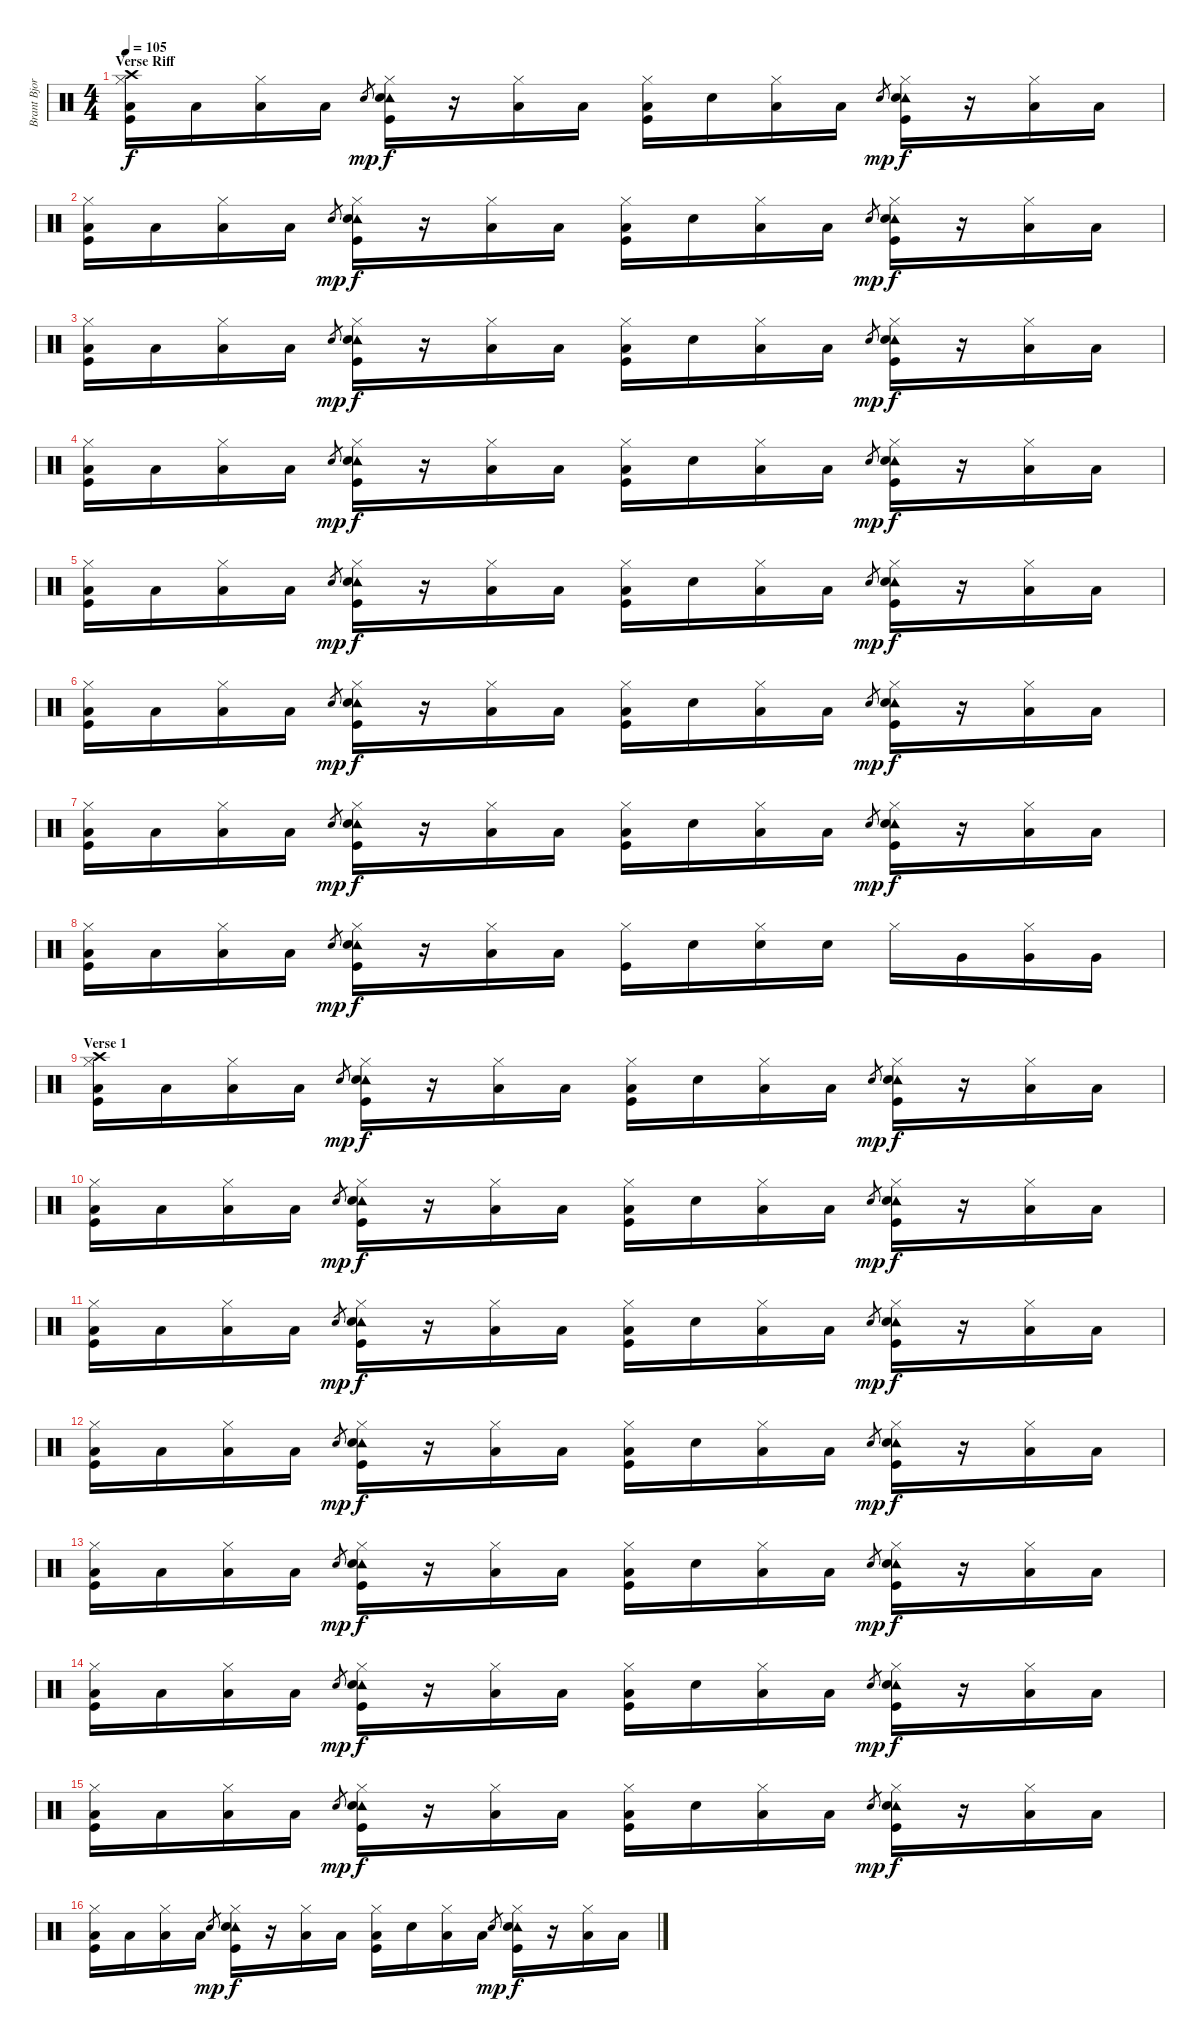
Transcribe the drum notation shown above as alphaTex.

\track ("Brant Bjork - Drums" "Brant Bjor") {instrument percussion}
\staff {score}
\articulation defaults
\ts (4 4)
\section ("" "Verse Riff")
\tempo 105
\clef neutral
\ks c
("Crash high (hit)" "Hi-Hat (closed)" "Low Floor Tom (hit)" "Kick (hit)").16{dy f} "Low Floor Tom (hit)".16 ("Hi-Hat (closed)" "Low Floor Tom (hit)").16 "Low Floor Tom (hit)".16 "Snare (hit) 2".8{gr dy mp} ("Tambourine (hit)" "Hi-Hat (closed)" "Snare (hit) 2" "Kick (hit)").16{dy f} r.16 ("Hi-Hat (closed)" "Low Floor Tom (hit)").16 "Low Floor Tom (hit)".16 ("Hi-Hat (closed)" "Low Floor Tom (hit)" "Kick (hit)").16 "Snare (hit) 2".16 ("Hi-Hat (closed)" "Low Floor Tom (hit)").16 "Low Floor Tom (hit)".16 "Snare (hit) 2".8{gr dy mp} ("Tambourine (hit)" "Hi-Hat (closed)" "Snare (hit) 2" "Kick (hit)").16{dy f} r.16 ("Hi-Hat (closed)" "Low Floor Tom (hit)").16 "Low Floor Tom (hit)".16 |
("Hi-Hat (closed)" "Low Floor Tom (hit)" "Kick (hit)").16 "Low Floor Tom (hit)".16 ("Hi-Hat (closed)" "Low Floor Tom (hit)").16 "Low Floor Tom (hit)".16 "Snare (hit) 2".8{gr dy mp} ("Tambourine (hit)" "Hi-Hat (closed)" "Snare (hit) 2" "Kick (hit)").16{dy f} r.16 ("Hi-Hat (closed)" "Low Floor Tom (hit)").16 "Low Floor Tom (hit)".16 ("Hi-Hat (closed)" "Low Floor Tom (hit)" "Kick (hit)").16 "Snare (hit) 2".16 ("Hi-Hat (closed)" "Low Floor Tom (hit)").16 "Low Floor Tom (hit)".16 "Snare (hit) 2".8{gr dy mp} ("Tambourine (hit)" "Hi-Hat (closed)" "Snare (hit) 2" "Kick (hit)").16{dy f} r.16 ("Hi-Hat (closed)" "Low Floor Tom (hit)").16 "Low Floor Tom (hit)".16 |
("Hi-Hat (closed)" "Low Floor Tom (hit)" "Kick (hit)").16 "Low Floor Tom (hit)".16 ("Hi-Hat (closed)" "Low Floor Tom (hit)").16 "Low Floor Tom (hit)".16 "Snare (hit) 2".8{gr dy mp} ("Tambourine (hit)" "Hi-Hat (closed)" "Snare (hit) 2" "Kick (hit)").16{dy f} r.16 ("Hi-Hat (closed)" "Low Floor Tom (hit)").16 "Low Floor Tom (hit)".16 ("Hi-Hat (closed)" "Low Floor Tom (hit)" "Kick (hit)").16 "Snare (hit) 2".16 ("Hi-Hat (closed)" "Low Floor Tom (hit)").16 "Low Floor Tom (hit)".16 "Snare (hit) 2".8{gr dy mp} ("Tambourine (hit)" "Hi-Hat (closed)" "Snare (hit) 2" "Kick (hit)").16{dy f} r.16 ("Hi-Hat (closed)" "Low Floor Tom (hit)").16 "Low Floor Tom (hit)".16 |
("Hi-Hat (closed)" "Low Floor Tom (hit)" "Kick (hit)").16 "Low Floor Tom (hit)".16 ("Hi-Hat (closed)" "Low Floor Tom (hit)").16 "Low Floor Tom (hit)".16 "Snare (hit) 2".8{gr dy mp} ("Tambourine (hit)" "Hi-Hat (closed)" "Snare (hit) 2" "Kick (hit)").16{dy f} r.16 ("Hi-Hat (closed)" "Low Floor Tom (hit)").16 "Low Floor Tom (hit)".16 ("Hi-Hat (closed)" "Low Floor Tom (hit)" "Kick (hit)").16 "Snare (hit) 2".16 ("Hi-Hat (closed)" "Low Floor Tom (hit)").16 "Low Floor Tom (hit)".16 "Snare (hit) 2".8{gr dy mp} ("Tambourine (hit)" "Hi-Hat (closed)" "Snare (hit) 2" "Kick (hit)").16{dy f} r.16 ("Hi-Hat (closed)" "Low Floor Tom (hit)").16 "Low Floor Tom (hit)".16 |
("Hi-Hat (closed)" "Low Floor Tom (hit)" "Kick (hit)").16 "Low Floor Tom (hit)".16 ("Hi-Hat (closed)" "Low Floor Tom (hit)").16 "Low Floor Tom (hit)".16 "Snare (hit) 2".8{gr dy mp} ("Tambourine (hit)" "Hi-Hat (closed)" "Snare (hit) 2" "Kick (hit)").16{dy f} r.16 ("Hi-Hat (closed)" "Low Floor Tom (hit)").16 "Low Floor Tom (hit)".16 ("Hi-Hat (closed)" "Low Floor Tom (hit)" "Kick (hit)").16 "Snare (hit) 2".16 ("Hi-Hat (closed)" "Low Floor Tom (hit)").16 "Low Floor Tom (hit)".16 "Snare (hit) 2".8{gr dy mp} ("Tambourine (hit)" "Hi-Hat (closed)" "Snare (hit) 2" "Kick (hit)").16{dy f} r.16 ("Hi-Hat (closed)" "Low Floor Tom (hit)").16 "Low Floor Tom (hit)".16 |
("Hi-Hat (closed)" "Low Floor Tom (hit)" "Kick (hit)").16 "Low Floor Tom (hit)".16 ("Hi-Hat (closed)" "Low Floor Tom (hit)").16 "Low Floor Tom (hit)".16 "Snare (hit) 2".8{gr dy mp} ("Tambourine (hit)" "Hi-Hat (closed)" "Snare (hit) 2" "Kick (hit)").16{dy f} r.16 ("Hi-Hat (closed)" "Low Floor Tom (hit)").16 "Low Floor Tom (hit)".16 ("Hi-Hat (closed)" "Low Floor Tom (hit)" "Kick (hit)").16 "Snare (hit) 2".16 ("Hi-Hat (closed)" "Low Floor Tom (hit)").16 "Low Floor Tom (hit)".16 "Snare (hit) 2".8{gr dy mp} ("Tambourine (hit)" "Hi-Hat (closed)" "Snare (hit) 2" "Kick (hit)").16{dy f} r.16 ("Hi-Hat (closed)" "Low Floor Tom (hit)").16 "Low Floor Tom (hit)".16 |
("Hi-Hat (closed)" "Low Floor Tom (hit)" "Kick (hit)").16 "Low Floor Tom (hit)".16 ("Hi-Hat (closed)" "Low Floor Tom (hit)").16 "Low Floor Tom (hit)".16 "Snare (hit) 2".8{gr dy mp} ("Tambourine (hit)" "Hi-Hat (closed)" "Snare (hit) 2" "Kick (hit)").16{dy f} r.16 ("Hi-Hat (closed)" "Low Floor Tom (hit)").16 "Low Floor Tom (hit)".16 ("Hi-Hat (closed)" "Low Floor Tom (hit)" "Kick (hit)").16 "Snare (hit) 2".16 ("Hi-Hat (closed)" "Low Floor Tom (hit)").16 "Low Floor Tom (hit)".16 "Snare (hit) 2".8{gr dy mp} ("Tambourine (hit)" "Hi-Hat (closed)" "Snare (hit) 2" "Kick (hit)").16{dy f} r.16 ("Hi-Hat (closed)" "Low Floor Tom (hit)").16 "Low Floor Tom (hit)".16 |
("Hi-Hat (closed)" "Low Floor Tom (hit)" "Kick (hit)").16 "Low Floor Tom (hit)".16 ("Hi-Hat (closed)" "Low Floor Tom (hit)").16 "Low Floor Tom (hit)".16 "Snare (hit) 2".8{gr dy mp} ("Tambourine (hit)" "Hi-Hat (closed)" "Snare (hit) 2" "Kick (hit)").16{dy f} r.16 ("Hi-Hat (closed)" "Low Floor Tom (hit)").16 "Low Floor Tom (hit)".16 ("Hi-Hat (closed)" "Kick (hit)").16 "Snare (hit) 2".16 ("Hi-Hat (closed)" "Snare (hit) 2").16 "Snare (hit) 2".16 "Hi-Hat (closed)".16 "Very Low Tom (hit)".16 ("Hi-Hat (closed)" "Very Low Tom (hit)").16 "Very Low Tom (hit)".16 |
\section ("" "Verse 1")
("Crash high (hit)" "Hi-Hat (closed)" "Low Floor Tom (hit)" "Kick (hit)").16 "Low Floor Tom (hit)".16 ("Hi-Hat (closed)" "Low Floor Tom (hit)").16 "Low Floor Tom (hit)".16 "Snare (hit) 2".8{gr dy mp} ("Tambourine (hit)" "Hi-Hat (closed)" "Snare (hit) 2" "Kick (hit)").16{dy f} r.16 ("Hi-Hat (closed)" "Low Floor Tom (hit)").16 "Low Floor Tom (hit)".16 ("Hi-Hat (closed)" "Low Floor Tom (hit)" "Kick (hit)").16 "Snare (hit) 2".16 ("Hi-Hat (closed)" "Low Floor Tom (hit)").16 "Low Floor Tom (hit)".16 "Snare (hit) 2".8{gr dy mp} ("Tambourine (hit)" "Hi-Hat (closed)" "Snare (hit) 2" "Kick (hit)").16{dy f} r.16 ("Hi-Hat (closed)" "Low Floor Tom (hit)").16 "Low Floor Tom (hit)".16 |
("Hi-Hat (closed)" "Low Floor Tom (hit)" "Kick (hit)").16 "Low Floor Tom (hit)".16 ("Hi-Hat (closed)" "Low Floor Tom (hit)").16 "Low Floor Tom (hit)".16 "Snare (hit) 2".8{gr dy mp} ("Tambourine (hit)" "Hi-Hat (closed)" "Snare (hit) 2" "Kick (hit)").16{dy f} r.16 ("Hi-Hat (closed)" "Low Floor Tom (hit)").16 "Low Floor Tom (hit)".16 ("Hi-Hat (closed)" "Low Floor Tom (hit)" "Kick (hit)").16 "Snare (hit) 2".16 ("Hi-Hat (closed)" "Low Floor Tom (hit)").16 "Low Floor Tom (hit)".16 "Snare (hit) 2".8{gr dy mp} ("Tambourine (hit)" "Hi-Hat (closed)" "Snare (hit) 2" "Kick (hit)").16{dy f} r.16 ("Hi-Hat (closed)" "Low Floor Tom (hit)").16 "Low Floor Tom (hit)".16 |
("Hi-Hat (closed)" "Low Floor Tom (hit)" "Kick (hit)").16 "Low Floor Tom (hit)".16 ("Hi-Hat (closed)" "Low Floor Tom (hit)").16 "Low Floor Tom (hit)".16 "Snare (hit) 2".8{gr dy mp} ("Tambourine (hit)" "Hi-Hat (closed)" "Snare (hit) 2" "Kick (hit)").16{dy f} r.16 ("Hi-Hat (closed)" "Low Floor Tom (hit)").16 "Low Floor Tom (hit)".16 ("Hi-Hat (closed)" "Low Floor Tom (hit)" "Kick (hit)").16 "Snare (hit) 2".16 ("Hi-Hat (closed)" "Low Floor Tom (hit)").16 "Low Floor Tom (hit)".16 "Snare (hit) 2".8{gr dy mp} ("Tambourine (hit)" "Hi-Hat (closed)" "Snare (hit) 2" "Kick (hit)").16{dy f} r.16 ("Hi-Hat (closed)" "Low Floor Tom (hit)").16 "Low Floor Tom (hit)".16 |
("Hi-Hat (closed)" "Low Floor Tom (hit)" "Kick (hit)").16 "Low Floor Tom (hit)".16 ("Hi-Hat (closed)" "Low Floor Tom (hit)").16 "Low Floor Tom (hit)".16 "Snare (hit) 2".8{gr dy mp} ("Tambourine (hit)" "Hi-Hat (closed)" "Snare (hit) 2" "Kick (hit)").16{dy f} r.16 ("Hi-Hat (closed)" "Low Floor Tom (hit)").16 "Low Floor Tom (hit)".16 ("Hi-Hat (closed)" "Low Floor Tom (hit)" "Kick (hit)").16 "Snare (hit) 2".16 ("Hi-Hat (closed)" "Low Floor Tom (hit)").16 "Low Floor Tom (hit)".16 "Snare (hit) 2".8{gr dy mp} ("Tambourine (hit)" "Hi-Hat (closed)" "Snare (hit) 2" "Kick (hit)").16{dy f} r.16 ("Hi-Hat (closed)" "Low Floor Tom (hit)").16 "Low Floor Tom (hit)".16 |
("Hi-Hat (closed)" "Low Floor Tom (hit)" "Kick (hit)").16 "Low Floor Tom (hit)".16 ("Hi-Hat (closed)" "Low Floor Tom (hit)").16 "Low Floor Tom (hit)".16 "Snare (hit) 2".8{gr dy mp} ("Tambourine (hit)" "Hi-Hat (closed)" "Snare (hit) 2" "Kick (hit)").16{dy f} r.16 ("Hi-Hat (closed)" "Low Floor Tom (hit)").16 "Low Floor Tom (hit)".16 ("Hi-Hat (closed)" "Low Floor Tom (hit)" "Kick (hit)").16 "Snare (hit) 2".16 ("Hi-Hat (closed)" "Low Floor Tom (hit)").16 "Low Floor Tom (hit)".16 "Snare (hit) 2".8{gr dy mp} ("Tambourine (hit)" "Hi-Hat (closed)" "Snare (hit) 2" "Kick (hit)").16{dy f} r.16 ("Hi-Hat (closed)" "Low Floor Tom (hit)").16 "Low Floor Tom (hit)".16 |
("Hi-Hat (closed)" "Low Floor Tom (hit)" "Kick (hit)").16 "Low Floor Tom (hit)".16 ("Hi-Hat (closed)" "Low Floor Tom (hit)").16 "Low Floor Tom (hit)".16 "Snare (hit) 2".8{gr dy mp} ("Tambourine (hit)" "Hi-Hat (closed)" "Snare (hit) 2" "Kick (hit)").16{dy f} r.16 ("Hi-Hat (closed)" "Low Floor Tom (hit)").16 "Low Floor Tom (hit)".16 ("Hi-Hat (closed)" "Low Floor Tom (hit)" "Kick (hit)").16 "Snare (hit) 2".16 ("Hi-Hat (closed)" "Low Floor Tom (hit)").16 "Low Floor Tom (hit)".16 "Snare (hit) 2".8{gr dy mp} ("Tambourine (hit)" "Hi-Hat (closed)" "Snare (hit) 2" "Kick (hit)").16{dy f} r.16 ("Hi-Hat (closed)" "Low Floor Tom (hit)").16 "Low Floor Tom (hit)".16 |
("Hi-Hat (closed)" "Low Floor Tom (hit)" "Kick (hit)").16 "Low Floor Tom (hit)".16 ("Hi-Hat (closed)" "Low Floor Tom (hit)").16 "Low Floor Tom (hit)".16 "Snare (hit) 2".8{gr dy mp} ("Tambourine (hit)" "Hi-Hat (closed)" "Snare (hit) 2" "Kick (hit)").16{dy f} r.16 ("Hi-Hat (closed)" "Low Floor Tom (hit)").16 "Low Floor Tom (hit)".16 ("Hi-Hat (closed)" "Low Floor Tom (hit)" "Kick (hit)").16 "Snare (hit) 2".16 ("Hi-Hat (closed)" "Low Floor Tom (hit)").16 "Low Floor Tom (hit)".16 "Snare (hit) 2".8{gr dy mp} ("Tambourine (hit)" "Hi-Hat (closed)" "Snare (hit) 2" "Kick (hit)").16{dy f} r.16 ("Hi-Hat (closed)" "Low Floor Tom (hit)").16 "Low Floor Tom (hit)".16 |
("Hi-Hat (closed)" "Low Floor Tom (hit)" "Kick (hit)").16 "Low Floor Tom (hit)".16 ("Hi-Hat (closed)" "Low Floor Tom (hit)").16 "Low Floor Tom (hit)".16 "Snare (hit) 2".8{gr dy mp} ("Tambourine (hit)" "Hi-Hat (closed)" "Snare (hit) 2" "Kick (hit)").16{dy f} r.16 ("Hi-Hat (closed)" "Low Floor Tom (hit)").16 "Low Floor Tom (hit)".16 ("Hi-Hat (closed)" "Low Floor Tom (hit)" "Kick (hit)").16 "Snare (hit) 2".16 ("Hi-Hat (closed)" "Low Floor Tom (hit)").16 "Low Floor Tom (hit)".16 "Snare (hit) 2".8{gr dy mp} ("Tambourine (hit)" "Hi-Hat (closed)" "Snare (hit) 2" "Kick (hit)").16{dy f} r.16 ("Hi-Hat (closed)" "Low Floor Tom (hit)").16 "Low Floor Tom (hit)".16
